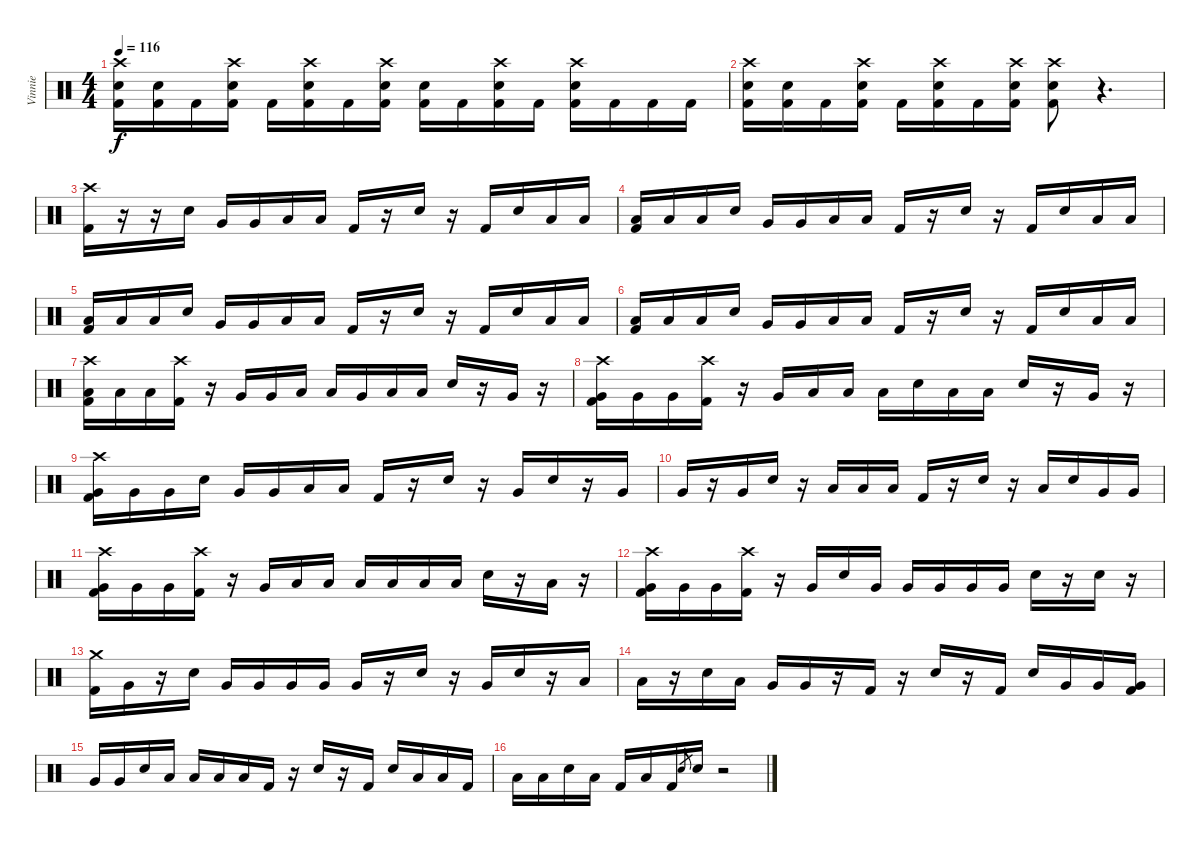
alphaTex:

\track ("Vinnie" "Vinnie") {instrument percussion}
\staff {score}
\articulation defaults
\ts (4 4)
\tempo 116
\clef neutral
\ks c
("Crash high (hit)" "Electric Snare (hit)" "Kick (hit) 2").16{dy f} ("Electric Snare (hit)" "Kick (hit) 2").16 "Kick (hit) 2".16 ("Crash high (hit)" "Electric Snare (hit)" "Kick (hit) 2").16 "Kick (hit) 2".16 ("Crash high (hit)" "Electric Snare (hit)" "Kick (hit) 2").16 "Kick (hit) 2".16 ("Crash high (hit)" "Electric Snare (hit)" "Kick (hit) 2").16 ("Electric Snare (hit)" "Kick (hit) 2").16 "Kick (hit) 2".16 ("Crash high (hit)" "Electric Snare (hit)" "Kick (hit) 2").16 "Kick (hit) 2".16 ("Crash high (hit)" "Electric Snare (hit)" "Kick (hit) 2").16 "Kick (hit) 2".16 "Kick (hit) 2".16 "Kick (hit) 2".16 |
("Crash high (hit)" "Electric Snare (hit)" "Kick (hit) 2").16 ("Electric Snare (hit)" "Kick (hit) 2").16 "Kick (hit) 2".16 ("Crash high (hit)" "Electric Snare (hit)" "Kick (hit) 2").16 "Kick (hit) 2".16 ("Crash high (hit)" "Electric Snare (hit)" "Kick (hit) 2").16 "Kick (hit) 2".16 ("Crash high (hit)" "Electric Snare (hit)" "Kick (hit) 2").16 ("Crash high (hit)" "Electric Snare (hit)" "Kick (hit) 2").8 r.4{d} |
("Crash high (hit)" "Kick (hit) 2").16 r.16 r.16 "Electric Snare (hit)".16 "Very Low Tom (hit)".16 "Very Low Tom (hit)".16 "Low Floor Tom (hit)".16 "Low Floor Tom (hit)".16 "Kick (hit) 2".16 r.16 "Electric Snare (hit)".16 r.16 "Kick (hit) 2".16 "Electric Snare (hit)".16 "Low Floor Tom (hit)".16 "Low Floor Tom (hit)".16 |
("Low Floor Tom (hit)" "Kick (hit) 2").16 "Low Floor Tom (hit)".16 "Low Floor Tom (hit)".16 "Electric Snare (hit)".16 "Very Low Tom (hit)".16 "Very Low Tom (hit)".16 "Low Floor Tom (hit)".16 "Low Floor Tom (hit)".16 "Kick (hit) 2".16 r.16 "Electric Snare (hit)".16 r.16 "Kick (hit) 2".16 "Electric Snare (hit)".16 "Low Floor Tom (hit)".16 "Low Floor Tom (hit)".16 |
("Low Floor Tom (hit)" "Kick (hit) 2").16 "Low Floor Tom (hit)".16 "Low Floor Tom (hit)".16 "Electric Snare (hit)".16 "Very Low Tom (hit)".16 "Very Low Tom (hit)".16 "Low Floor Tom (hit)".16 "Low Floor Tom (hit)".16 "Kick (hit) 2".16 r.16 "Electric Snare (hit)".16 r.16 "Kick (hit) 2".16 "Electric Snare (hit)".16 "Low Floor Tom (hit)".16 "Low Floor Tom (hit)".16 |
("Low Floor Tom (hit)" "Kick (hit) 2").16 "Low Floor Tom (hit)".16 "Low Floor Tom (hit)".16 "Electric Snare (hit)".16 "Very Low Tom (hit)".16 "Very Low Tom (hit)".16 "Low Floor Tom (hit)".16 "Low Floor Tom (hit)".16 "Kick (hit) 2".16 r.16 "Electric Snare (hit)".16 r.16 "Kick (hit) 2".16 "Electric Snare (hit)".16 "Low Floor Tom (hit)".16 "Low Floor Tom (hit)".16 |
("Crash high (hit)" "Low Floor Tom (hit)" "Kick (hit) 2").16 "Low Floor Tom (hit)".16 "Low Floor Tom (hit)".16 ("Crash high (hit)" "Kick (hit) 2").16 r.16 "Very Low Tom (hit)".16 "Very Low Tom (hit)".16 "Low Floor Tom (hit)".16 "Low Floor Tom (hit)".16 "Very Low Tom (hit)".16 "Low Floor Tom (hit)".16 "Low Floor Tom (hit)".16 "Electric Snare (hit)".16 r.16 "Very Low Tom (hit)".16 r.16 |
("Crash high (hit)" "Very Low Tom (hit)" "Kick (hit) 2").16 "Very Low Tom (hit)".16 "Very Low Tom (hit)".16 ("Crash high (hit)" "Kick (hit) 2").16 r.16 "Very Low Tom (hit)".16 "Low Floor Tom (hit)".16 "Low Floor Tom (hit)".16 "Low Floor Tom (hit)".16 "Electric Snare (hit)".16 "Low Floor Tom (hit)".16 "Low Floor Tom (hit)".16 "Electric Snare (hit)".16 r.16 "Very Low Tom (hit)".16 r.16 |
("Crash high (hit)" "Very Low Tom (hit)" "Kick (hit) 2").16 "Very Low Tom (hit)".16 "Very Low Tom (hit)".16 "Electric Snare (hit)".16 "Very Low Tom (hit)".16 "Very Low Tom (hit)".16 "Low Floor Tom (hit)".16 "Low Floor Tom (hit)".16 "Kick (hit) 2".16 r.16 "Electric Snare (hit)".16 r.16 "Very Low Tom (hit)".16 "Electric Snare (hit)".16 r.16 "Very Low Tom (hit)".16 |
"Very Low Tom (hit)".16 r.16 "Very Low Tom (hit)".16 "Electric Snare (hit)".16 r.16 "Low Floor Tom (hit)".16 "Low Floor Tom (hit)".16 "Low Floor Tom (hit)".16 "Kick (hit) 2".16 r.16 "Electric Snare (hit)".16 r.16 "Low Floor Tom (hit)".16 "Electric Snare (hit)".16 "Very Low Tom (hit)".16 "Very Low Tom (hit)".16 |
("Crash high (hit)" "Very Low Tom (hit)" "Kick (hit) 2").16 "Very Low Tom (hit)".16 "Very Low Tom (hit)".16 ("Crash high (hit)" "Kick (hit) 2").16 r.16 "Very Low Tom (hit)".16 "Low Floor Tom (hit)".16 "Low Floor Tom (hit)".16 "Low Floor Tom (hit)".16 "Low Floor Tom (hit)".16 "Low Floor Tom (hit)".16 "Low Floor Tom (hit)".16 "Electric Snare (hit)".16 r.16 "Low Floor Tom (hit)".16 r.16 |
("Crash high (hit)" "Very Low Tom (hit)" "Kick (hit) 2").16 "Very Low Tom (hit)".16 "Very Low Tom (hit)".16 ("Crash high (hit)" "Kick (hit) 2").16 r.16 "Very Low Tom (hit)".16 "Electric Snare (hit)".16 "Very Low Tom (hit)".16 "Very Low Tom (hit)".16 "Very Low Tom (hit)".16 "Very Low Tom (hit)".16 "Very Low Tom (hit)".16 "Electric Snare (hit)".16 r.16 "Electric Snare (hit)".16 r.16 |
("Crash medium (hit)" "Kick (hit) 2").16 "Very Low Tom (hit)".16 r.16 "Electric Snare (hit)".16 "Very Low Tom (hit)".16 "Very Low Tom (hit)".16 "Very Low Tom (hit)".16 "Very Low Tom (hit)".16 "Very Low Tom (hit)".16 r.16 "Electric Snare (hit)".16 r.16 "Very Low Tom (hit)".16 "Electric Snare (hit)".16 r.16 "Low Floor Tom (hit)".16 |
"Low Floor Tom (hit)".16 r.16 "Electric Snare (hit)".16 "Low Floor Tom (hit)".16 "Very Low Tom (hit)".16 "Very Low Tom (hit)".16 r.16 "Kick (hit) 2".16 r.16 "Electric Snare (hit)".16 r.16 "Kick (hit) 2".16 "Electric Snare (hit)".16 "Very Low Tom (hit)".16 "Very Low Tom (hit)".16 ("Very Low Tom (hit)" "Kick (hit) 2").16 |
"Very Low Tom (hit)".16 "Very Low Tom (hit)".16 "Electric Snare (hit)".16 "Low Floor Tom (hit)".16 "Low Floor Tom (hit)".16 "Low Floor Tom (hit)".16 "Low Floor Tom (hit)".16 "Kick (hit) 2".16 r.16 "Electric Snare (hit)".16 r.16 "Kick (hit) 2".16 "Electric Snare (hit)".16 "Low Floor Tom (hit)".16 "Low Floor Tom (hit)".16 "Kick (hit) 2".16 |
"Low Floor Tom (hit)".16 "Low Floor Tom (hit)".16 "Electric Snare (hit)".16 "Low Floor Tom (hit)".16 "Kick (hit) 2".16 "Low Floor Tom (hit)".16 "Kick (hit) 2".16 "Electric Snare (hit)".8{gr} "Electric Snare (hit)".16 r.2
